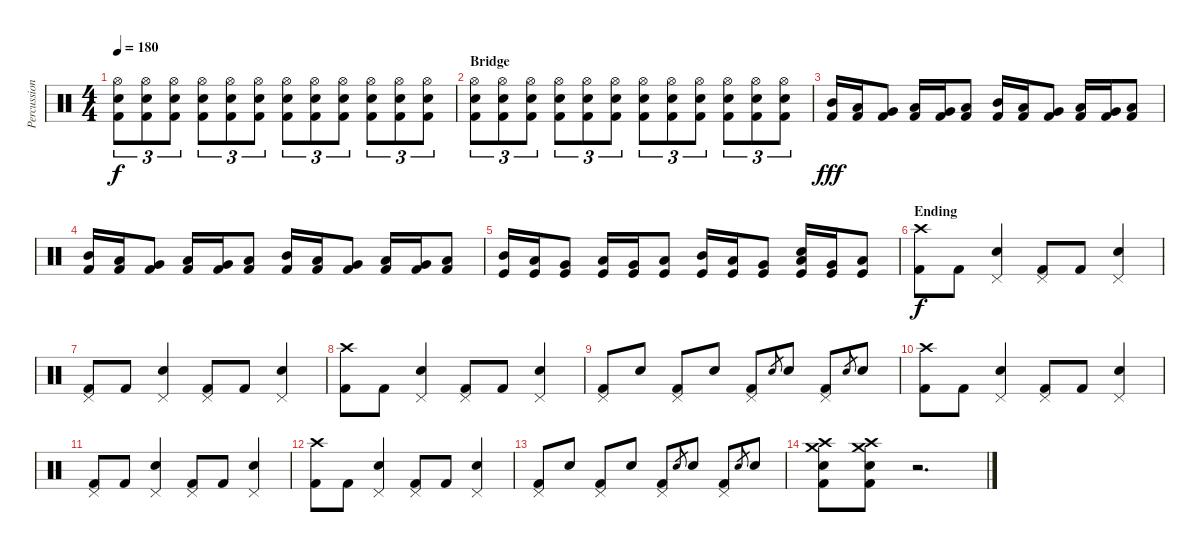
\track ("Percussion" "Percussion") {instrument percussion}
\staff {score}
\articulation defaults
\ts (4 4)
\tempo 180
\clef neutral
\ks c
("Hi-Hat (open)" "Electric Snare (hit)" "Kick (hit) 2").8{tu (3 2) dy f} ("Hi-Hat (open)" "Electric Snare (hit)" "Kick (hit) 2").8{tu (3 2)} ("Hi-Hat (open)" "Electric Snare (hit)" "Kick (hit) 2").8{tu (3 2)} ("Hi-Hat (open)" "Electric Snare (hit)" "Kick (hit) 2").8{tu (3 2)} ("Hi-Hat (open)" "Electric Snare (hit)" "Kick (hit) 2").8{tu (3 2)} ("Hi-Hat (open)" "Electric Snare (hit)" "Kick (hit) 2").8{tu (3 2)} ("Hi-Hat (open)" "Electric Snare (hit)" "Kick (hit) 2").8{tu (3 2)} ("Hi-Hat (open)" "Electric Snare (hit)" "Kick (hit) 2").8{tu (3 2)} ("Hi-Hat (open)" "Electric Snare (hit)" "Kick (hit) 2").8{tu (3 2)} ("Hi-Hat (open)" "Electric Snare (hit)" "Kick (hit) 2").8{tu (3 2)} ("Hi-Hat (open)" "Electric Snare (hit)" "Kick (hit) 2").8{tu (3 2)} ("Hi-Hat (open)" "Electric Snare (hit)" "Kick (hit) 2").8{tu (3 2)} |
\section ("" "Bridge")
("Hi-Hat (open)" "Electric Snare (hit)" "Kick (hit) 2").8{tu (3 2)} ("Hi-Hat (open)" "Electric Snare (hit)" "Kick (hit) 2").8{tu (3 2)} ("Hi-Hat (open)" "Electric Snare (hit)" "Kick (hit) 2").8{tu (3 2)} ("Hi-Hat (open)" "Electric Snare (hit)" "Kick (hit) 2").8{tu (3 2)} ("Hi-Hat (open)" "Electric Snare (hit)" "Kick (hit) 2").8{tu (3 2)} ("Hi-Hat (open)" "Electric Snare (hit)" "Kick (hit) 2").8{tu (3 2)} ("Hi-Hat (open)" "Electric Snare (hit)" "Kick (hit) 2").8{tu (3 2)} ("Hi-Hat (open)" "Electric Snare (hit)" "Kick (hit) 2").8{tu (3 2)} ("Hi-Hat (open)" "Electric Snare (hit)" "Kick (hit) 2").8{tu (3 2)} ("Hi-Hat (open)" "Electric Snare (hit)" "Kick (hit) 2").8{tu (3 2)} ("Hi-Hat (open)" "Electric Snare (hit)" "Kick (hit) 2").8{tu (3 2)} ("Hi-Hat (open)" "Electric Snare (hit)" "Kick (hit) 2").8{tu (3 2)} |
("Mid Tom (hit)" "Kick (hit) 2").16{dy fff} ("Low Tom (hit)" "Kick (hit) 2").16 ("Very Low Tom (hit)" "Kick (hit) 2").8 ("Low Tom (hit)" "Kick (hit) 2").16 ("Very Low Tom (hit)" "Kick (hit) 2").16 ("Low Floor Tom (hit)" "Kick (hit) 2").8 ("Mid Tom (hit)" "Kick (hit) 2").16 ("Low Tom (hit)" "Kick (hit) 2").16 ("Very Low Tom (hit)" "Kick (hit) 2").8 ("Low Tom (hit)" "Kick (hit) 2").16 ("Very Low Tom (hit)" "Kick (hit) 2").16 ("Low Floor Tom (hit)" "Kick (hit) 2").8 |
("Mid Tom (hit)" "Kick (hit) 2").16 ("Low Tom (hit)" "Kick (hit) 2").16 ("Very Low Tom (hit)" "Kick (hit) 2").8 ("Low Tom (hit)" "Kick (hit) 2").16 ("Very Low Tom (hit)" "Kick (hit) 2").16 ("Low Floor Tom (hit)" "Kick (hit) 2").8 ("Mid Tom (hit)" "Kick (hit) 2").16 ("Low Tom (hit)" "Kick (hit) 2").16 ("Very Low Tom (hit)" "Kick (hit) 2").8 ("Low Tom (hit)" "Kick (hit) 2").16 ("Very Low Tom (hit)" "Kick (hit) 2").16 ("Low Floor Tom (hit)" "Kick (hit) 2").8 |
("Mid Tom (hit)" "Kick (hit)").16 ("Low Tom (hit)" "Kick (hit)").16 ("Very Low Tom (hit)" "Kick (hit)").8 ("Low Tom (hit)" "Kick (hit)").16 ("Very Low Tom (hit)" "Kick (hit)").16 ("Low Floor Tom (hit)" "Kick (hit)").8 ("Mid Tom (hit)" "Kick (hit)").16 ("Low Tom (hit)" "Kick (hit)").16 ("Very Low Tom (hit)" "Kick (hit)").8 ("Low Tom (hit)" "Electric Snare (hit)" "Kick (hit)").16 ("Very Low Tom (hit)" "Kick (hit)").16 ("Low Floor Tom (hit)" "Kick (hit)").8 |
\section ("" "Ending")
("Crash high (hit)" "Kick (hit) 2").8{dy f} "Kick (hit) 2".8 ("Pedal Hi-Hat (hit)" "Electric Snare (hit)").4 ("Pedal Hi-Hat (hit)" "Kick (hit) 2").8 "Kick (hit) 2".8 ("Pedal Hi-Hat (hit)" "Electric Snare (hit)").4 |
("Pedal Hi-Hat (hit)" "Kick (hit) 2").8 "Kick (hit) 2".8 ("Pedal Hi-Hat (hit)" "Electric Snare (hit)").4 ("Pedal Hi-Hat (hit)" "Kick (hit) 2").8 "Kick (hit) 2".8 ("Pedal Hi-Hat (hit)" "Electric Snare (hit)").4 |
("Crash high (hit)" "Kick (hit) 2").8 "Kick (hit) 2".8 ("Pedal Hi-Hat (hit)" "Electric Snare (hit)").4 ("Pedal Hi-Hat (hit)" "Kick (hit) 2").8 "Kick (hit) 2".8 ("Pedal Hi-Hat (hit)" "Electric Snare (hit)").4 |
("Pedal Hi-Hat (hit)" "Kick (hit) 2").8 "Electric Snare (hit)".8 ("Pedal Hi-Hat (hit)" "Kick (hit) 2").8 "Electric Snare (hit)".8 ("Pedal Hi-Hat (hit)" "Kick (hit) 2").8 "Electric Snare (hit)".8{gr} "Electric Snare (hit)".8 ("Pedal Hi-Hat (hit)" "Kick (hit) 2").8 "Electric Snare (hit)".8{gr} "Electric Snare (hit)".8 |
("Crash high (hit)" "Kick (hit) 2").8 "Kick (hit) 2".8 ("Pedal Hi-Hat (hit)" "Electric Snare (hit)").4 ("Pedal Hi-Hat (hit)" "Kick (hit) 2").8 "Kick (hit) 2".8 ("Pedal Hi-Hat (hit)" "Electric Snare (hit)").4 |
("Pedal Hi-Hat (hit)" "Kick (hit) 2").8 "Kick (hit) 2".8 ("Pedal Hi-Hat (hit)" "Electric Snare (hit)").4 ("Pedal Hi-Hat (hit)" "Kick (hit) 2").8 "Kick (hit) 2".8 ("Pedal Hi-Hat (hit)" "Electric Snare (hit)").4 |
("Crash high (hit)" "Kick (hit) 2").8 "Kick (hit) 2".8 ("Pedal Hi-Hat (hit)" "Electric Snare (hit)").4 ("Pedal Hi-Hat (hit)" "Kick (hit) 2").8 "Kick (hit) 2".8 ("Pedal Hi-Hat (hit)" "Electric Snare (hit)").4 |
("Pedal Hi-Hat (hit)" "Kick (hit) 2").8 "Electric Snare (hit)".8 ("Pedal Hi-Hat (hit)" "Kick (hit) 2").8 "Electric Snare (hit)".8 ("Pedal Hi-Hat (hit)" "Kick (hit) 2").8 "Electric Snare (hit)".8{gr} "Electric Snare (hit)".8 ("Pedal Hi-Hat (hit)" "Kick (hit) 2").8 "Electric Snare (hit)".8{gr} "Electric Snare (hit)".8 |
("Crash medium (hit)" "Crash high (hit)" "Electric Snare (hit)" "Kick (hit) 2").8 ("Crash medium (hit)" "Crash high (hit)" "Electric Snare (hit)" "Kick (hit) 2").8 r.2{d}
